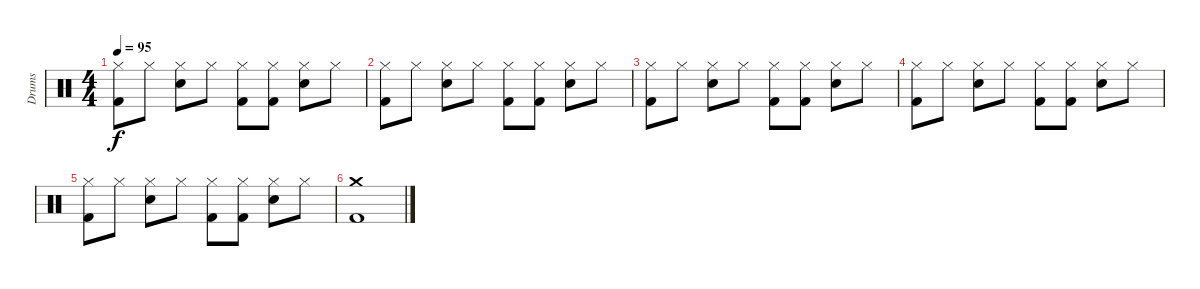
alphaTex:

\track ("Drums" "Drums") {instrument percussion}
\staff {score}
\articulation defaults
\ts (4 4)
\tempo 95
\clef neutral
\ks c
("Hi-Hat (closed)" "Kick (hit) 2").8{dy f} "Hi-Hat (closed)".8 ("Hi-Hat (closed)" "Snare (hit) 2").8 "Hi-Hat (closed)".8 ("Hi-Hat (closed)" "Kick (hit) 2").8 ("Hi-Hat (closed)" "Kick (hit) 2").8 ("Hi-Hat (closed)" "Snare (hit) 2").8 "Hi-Hat (closed)".8 |
("Hi-Hat (closed)" "Kick (hit) 2").8 "Hi-Hat (closed)".8 ("Hi-Hat (closed)" "Snare (hit) 2").8 "Hi-Hat (closed)".8 ("Hi-Hat (closed)" "Kick (hit) 2").8 ("Hi-Hat (closed)" "Kick (hit) 2").8 ("Hi-Hat (closed)" "Snare (hit) 2").8 "Hi-Hat (closed)".8 |
("Hi-Hat (closed)" "Kick (hit) 2").8 "Hi-Hat (closed)".8 ("Hi-Hat (closed)" "Snare (hit) 2").8 "Hi-Hat (closed)".8 ("Hi-Hat (closed)" "Kick (hit) 2").8 ("Hi-Hat (closed)" "Kick (hit) 2").8 ("Hi-Hat (closed)" "Snare (hit) 2").8 "Hi-Hat (closed)".8 |
("Hi-Hat (closed)" "Kick (hit) 2").8 "Hi-Hat (closed)".8 ("Hi-Hat (closed)" "Snare (hit) 2").8 "Hi-Hat (closed)".8 ("Hi-Hat (closed)" "Kick (hit) 2").8 ("Hi-Hat (closed)" "Kick (hit) 2").8 ("Hi-Hat (closed)" "Snare (hit) 2").8 "Hi-Hat (closed)".8 |
("Hi-Hat (closed)" "Kick (hit) 2").8 "Hi-Hat (closed)".8 ("Hi-Hat (closed)" "Snare (hit) 2").8 "Hi-Hat (closed)".8 ("Hi-Hat (closed)" "Kick (hit) 2").8 ("Hi-Hat (closed)" "Kick (hit) 2").8 ("Hi-Hat (closed)" "Snare (hit) 2").8 "Hi-Hat (closed)".8 |
("Crash medium (hit)" "Kick (hit) 2").1
